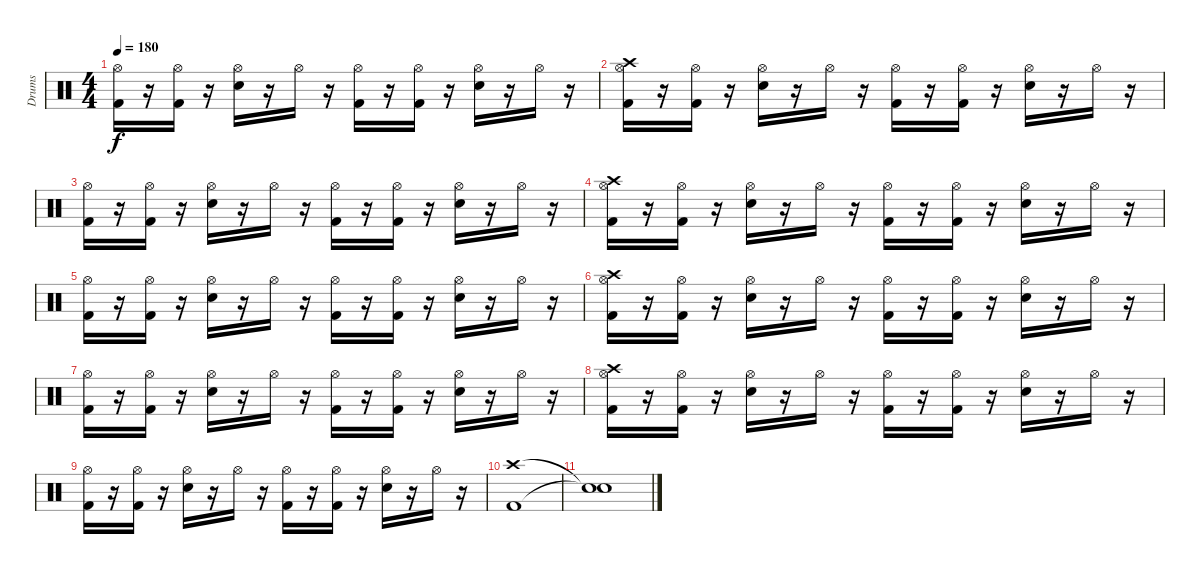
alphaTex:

\track ("Drums" "Drums") {instrument percussion}
\staff {score}
\articulation defaults
\ts (4 4)
\tempo 180
\clef neutral
\ks c
("Hi-Hat (open)" "Kick (hit) 2").16{dy f} r.16 ("Hi-Hat (open)" "Kick (hit) 2").16 r.16 ("Hi-Hat (open)" "Snare (hit) 2").16 r.16 "Hi-Hat (open)".16 r.16 ("Hi-Hat (open)" "Kick (hit) 2").16 r.16 ("Hi-Hat (open)" "Kick (hit) 2").16 r.16 ("Hi-Hat (open)" "Snare (hit) 2").16 r.16 "Hi-Hat (open)".16 r.16 |
("Hi-Hat (open)" "Kick (hit) 2" "Crash high (hit)").16 r.16 ("Hi-Hat (open)" "Kick (hit) 2").16 r.16 ("Hi-Hat (open)" "Snare (hit) 2").16 r.16 "Hi-Hat (open)".16 r.16 ("Hi-Hat (open)" "Kick (hit) 2").16 r.16 ("Hi-Hat (open)" "Kick (hit) 2").16 r.16 ("Hi-Hat (open)" "Snare (hit) 2").16 r.16 "Hi-Hat (open)".16 r.16 |
("Hi-Hat (open)" "Kick (hit) 2").16 r.16 ("Hi-Hat (open)" "Kick (hit) 2").16 r.16 ("Hi-Hat (open)" "Snare (hit) 2").16 r.16 "Hi-Hat (open)".16 r.16 ("Hi-Hat (open)" "Kick (hit) 2").16 r.16 ("Hi-Hat (open)" "Kick (hit) 2").16 r.16 ("Hi-Hat (open)" "Snare (hit) 2").16 r.16 "Hi-Hat (open)".16 r.16 |
("Hi-Hat (open)" "Kick (hit) 2" "Crash high (hit)").16 r.16 ("Hi-Hat (open)" "Kick (hit) 2").16 r.16 ("Hi-Hat (open)" "Snare (hit) 2").16 r.16 "Hi-Hat (open)".16 r.16 ("Hi-Hat (open)" "Kick (hit) 2").16 r.16 ("Hi-Hat (open)" "Kick (hit) 2").16 r.16 ("Hi-Hat (open)" "Snare (hit) 2").16 r.16 "Hi-Hat (open)".16 r.16 |
("Hi-Hat (open)" "Kick (hit) 2").16 r.16 ("Hi-Hat (open)" "Kick (hit) 2").16 r.16 ("Hi-Hat (open)" "Snare (hit) 2").16 r.16 "Hi-Hat (open)".16 r.16 ("Hi-Hat (open)" "Kick (hit) 2").16 r.16 ("Hi-Hat (open)" "Kick (hit) 2").16 r.16 ("Hi-Hat (open)" "Snare (hit) 2").16 r.16 "Hi-Hat (open)".16 r.16 |
("Hi-Hat (open)" "Kick (hit) 2" "Crash high (hit)").16 r.16 ("Hi-Hat (open)" "Kick (hit) 2").16 r.16 ("Hi-Hat (open)" "Snare (hit) 2").16 r.16 "Hi-Hat (open)".16 r.16 ("Hi-Hat (open)" "Kick (hit) 2").16 r.16 ("Hi-Hat (open)" "Kick (hit) 2").16 r.16 ("Hi-Hat (open)" "Snare (hit) 2").16 r.16 "Hi-Hat (open)".16 r.16 |
("Hi-Hat (open)" "Kick (hit) 2").16 r.16 ("Hi-Hat (open)" "Kick (hit) 2").16 r.16 ("Hi-Hat (open)" "Snare (hit) 2").16 r.16 "Hi-Hat (open)".16 r.16 ("Hi-Hat (open)" "Kick (hit) 2").16 r.16 ("Hi-Hat (open)" "Kick (hit) 2").16 r.16 ("Hi-Hat (open)" "Snare (hit) 2").16 r.16 "Hi-Hat (open)".16 r.16 |
("Hi-Hat (open)" "Kick (hit) 2" "Crash high (hit)").16 r.16 ("Hi-Hat (open)" "Kick (hit) 2").16 r.16 ("Hi-Hat (open)" "Snare (hit) 2").16 r.16 "Hi-Hat (open)".16 r.16 ("Hi-Hat (open)" "Kick (hit) 2").16 r.16 ("Hi-Hat (open)" "Kick (hit) 2").16 r.16 ("Hi-Hat (open)" "Snare (hit) 2").16 r.16 "Hi-Hat (open)".16 r.16 |
("Hi-Hat (open)" "Kick (hit) 2").16 r.16 ("Hi-Hat (open)" "Kick (hit) 2").16 r.16 ("Hi-Hat (open)" "Snare (hit) 2").16 r.16 "Hi-Hat (open)".16 r.16 ("Hi-Hat (open)" "Kick (hit) 2").16 r.16 ("Hi-Hat (open)" "Kick (hit) 2").16 r.16 ("Hi-Hat (open)" "Snare (hit) 2").16 r.16 "Hi-Hat (open)".16 r.16 |
("Crash high (hit)" "Kick (hit) 2").1 |
("Snare (hit)"{t} "Snare (hit)"{t}).1
